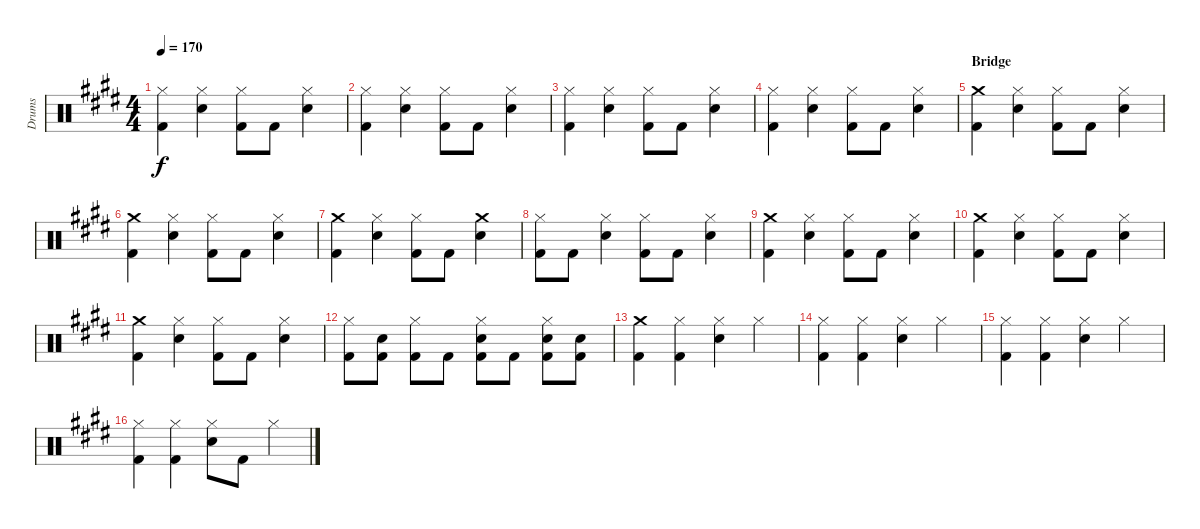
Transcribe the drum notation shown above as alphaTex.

\track ("Drums" "Drums") {instrument percussion}
\staff {score}
\articulation defaults
\ts (4 4)
\tempo 170
\clef neutral
\ks c#minor
("Hi-Hat (closed)" "Kick (hit) 2").4{dy f} ("Hi-Hat (closed)" "Electric Snare (hit)").4 ("Hi-Hat (closed)" "Kick (hit) 2").8 "Kick (hit) 2".8 ("Hi-Hat (closed)" "Electric Snare (hit)").4 |
("Hi-Hat (closed)" "Kick (hit) 2").4 ("Hi-Hat (closed)" "Electric Snare (hit)").4 ("Hi-Hat (closed)" "Kick (hit) 2").8 "Kick (hit) 2".8 ("Hi-Hat (closed)" "Electric Snare (hit)").4 |
("Hi-Hat (closed)" "Kick (hit) 2").4 ("Hi-Hat (closed)" "Electric Snare (hit)").4 ("Hi-Hat (closed)" "Kick (hit) 2").8 "Kick (hit) 2".8 ("Hi-Hat (closed)" "Electric Snare (hit)").4 |
("Hi-Hat (closed)" "Kick (hit) 2").4 ("Hi-Hat (closed)" "Electric Snare (hit)").4 ("Hi-Hat (closed)" "Kick (hit) 2").8 "Kick (hit) 2".8 ("Hi-Hat (closed)" "Electric Snare (hit)").4 |
\section ("" "Bridge")
("Crash medium (hit)" "Kick (hit) 2").4 ("Hi-Hat (closed)" "Electric Snare (hit)").4 ("Hi-Hat (closed)" "Kick (hit) 2").8 "Kick (hit) 2".8 ("Hi-Hat (closed)" "Electric Snare (hit)").4 |
("Crash medium (hit)" "Kick (hit) 2").4 ("Hi-Hat (closed)" "Electric Snare (hit)").4 ("Hi-Hat (closed)" "Kick (hit) 2").8 "Kick (hit) 2".8 ("Hi-Hat (closed)" "Electric Snare (hit)").4 |
("Crash medium (hit)" "Kick (hit) 2").4 ("Hi-Hat (closed)" "Electric Snare (hit)").4 ("Hi-Hat (closed)" "Kick (hit) 2").8 "Kick (hit) 2".8 ("Crash medium (hit)" "Electric Snare (hit)").4 |
("Hi-Hat (closed)" "Kick (hit) 2").8 "Kick (hit) 2".8 ("Hi-Hat (closed)" "Electric Snare (hit)").4 ("Hi-Hat (closed)" "Kick (hit) 2").8 "Kick (hit) 2".8 ("Hi-Hat (closed)" "Electric Snare (hit)").4 |
("Crash medium (hit)" "Kick (hit) 2").4 ("Hi-Hat (closed)" "Electric Snare (hit)").4 ("Hi-Hat (closed)" "Kick (hit) 2").8 "Kick (hit) 2".8 ("Hi-Hat (closed)" "Electric Snare (hit)").4 |
("Crash medium (hit)" "Kick (hit) 2").4 ("Hi-Hat (closed)" "Electric Snare (hit)").4 ("Hi-Hat (closed)" "Kick (hit) 2").8 "Kick (hit) 2".8 ("Hi-Hat (closed)" "Electric Snare (hit)").4 |
("Crash medium (hit)" "Kick (hit) 2").4 ("Hi-Hat (closed)" "Electric Snare (hit)").4 ("Hi-Hat (closed)" "Kick (hit) 2").8 "Kick (hit) 2".8 ("Hi-Hat (closed)" "Electric Snare (hit)").4 |
("Hi-Hat (closed)" "Kick (hit) 2").8 ("Electric Snare (hit)" "Kick (hit) 2").8 ("Hi-Hat (closed)" "Kick (hit) 2").8 "Kick (hit) 2".8 ("Hi-Hat (closed)" "Electric Snare (hit)" "Kick (hit) 2").8 "Kick (hit) 2".8 ("Hi-Hat (closed)" "Electric Snare (hit)" "Kick (hit) 2").8 ("Electric Snare (hit)" "Kick (hit) 2").8 |
("Crash medium (hit)" "Kick (hit) 2").4 ("Hi-Hat (closed)" "Kick (hit) 2").4 ("Hi-Hat (closed)" "Electric Snare (hit)").4 "Hi-Hat (closed)".4 |
("Hi-Hat (closed)" "Kick (hit) 2").4 ("Hi-Hat (closed)" "Kick (hit) 2").4 ("Hi-Hat (closed)" "Electric Snare (hit)").4 "Hi-Hat (closed)".4 |
("Hi-Hat (closed)" "Kick (hit) 2").4 ("Hi-Hat (closed)" "Kick (hit) 2").4 ("Hi-Hat (closed)" "Electric Snare (hit)").4 "Hi-Hat (closed)".4 |
("Hi-Hat (closed)" "Kick (hit) 2").4 ("Hi-Hat (closed)" "Kick (hit) 2").4 ("Hi-Hat (closed)" "Electric Snare (hit)").8 "Kick (hit) 2".8 "Hi-Hat (closed)".4
